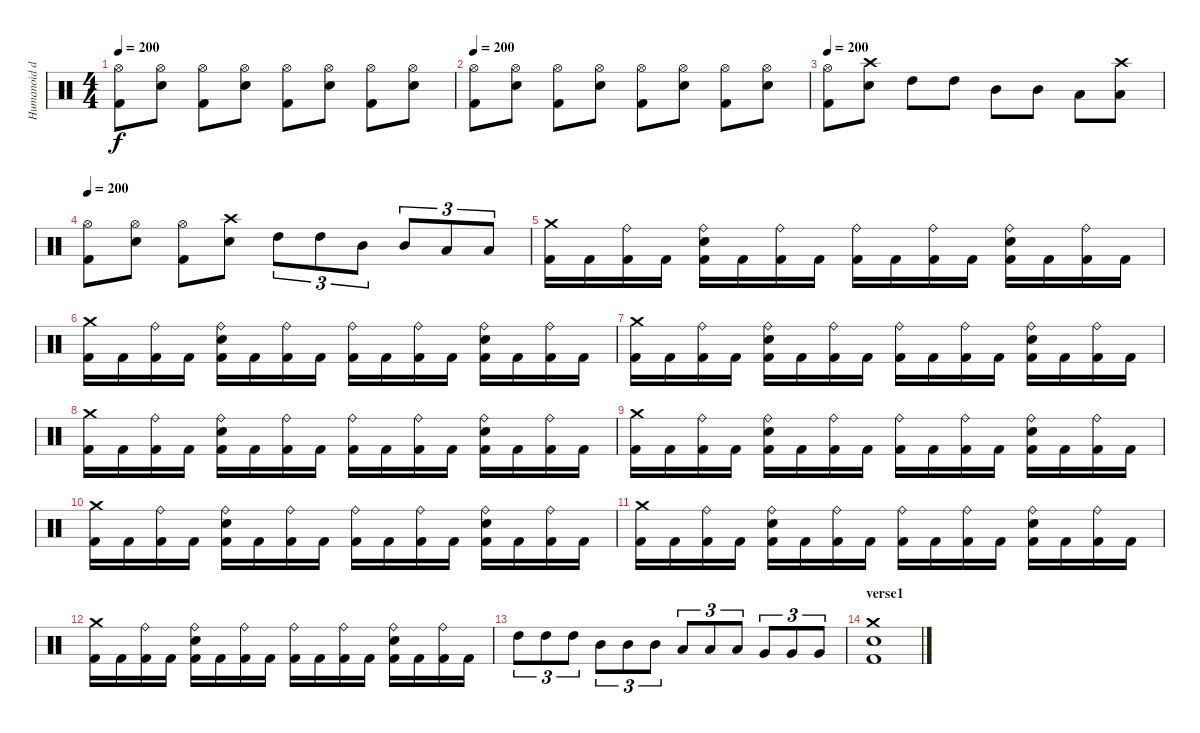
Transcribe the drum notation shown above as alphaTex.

\track ("Humanoid drum machine" "Humanoid d") {instrument percussion}
\staff {score}
\articulation defaults
\ts (4 4)
\tempo 200
\clef neutral
\ks c
("Hi-Hat (open)" "Kick (hit) 2").8{dy f} ("Hi-Hat (open)" "Electric Snare (hit)").8 ("Hi-Hat (open)" "Kick (hit) 2").8 ("Hi-Hat (open)" "Electric Snare (hit)").8 ("Hi-Hat (open)" "Kick (hit) 2").8 ("Hi-Hat (open)" "Electric Snare (hit)").8 ("Hi-Hat (open)" "Kick (hit) 2").8 ("Hi-Hat (open)" "Electric Snare (hit)").8 |
\tempo 200
("Hi-Hat (open)" "Kick (hit) 2").8 ("Hi-Hat (open)" "Electric Snare (hit)").8 ("Hi-Hat (open)" "Kick (hit) 2").8 ("Hi-Hat (open)" "Electric Snare (hit)").8 ("Hi-Hat (open)" "Kick (hit) 2").8 ("Hi-Hat (open)" "Electric Snare (hit)").8 ("Hi-Hat (open)" "Kick (hit) 2").8 ("Hi-Hat (open)" "Electric Snare (hit)").8 |
\tempo 200
("Hi-Hat (open)" "Kick (hit) 2").8 ("Crash high (hit)" "Electric Snare (hit)").8 "High Tom (hit)".8 "High Tom (hit)".8 "Mid Tom (hit)".8 "Mid Tom (hit)".8 "Low Tom (hit)".8 ("Crash high (hit)" "Low Tom (hit)").8 |
\tempo 200
("Hi-Hat (open)" "Kick (hit) 2").8 ("Hi-Hat (open)" "Electric Snare (hit)").8 ("Hi-Hat (open)" "Kick (hit) 2").8 ("Crash high (hit)" "Electric Snare (hit)").8 "High Tom (hit)".8{tu (3 2)} "High Tom (hit)".8{tu (3 2)} "Mid Tom (hit)".8{tu (3 2)} "Mid Tom (hit)".8{tu (3 2)} "Low Tom (hit)".8{tu (3 2)} "Low Tom (hit)".8{tu (3 2)} |
("Crash medium (hit)" "Kick (hit) 2").16 "Kick (hit) 2".16 ("Ride (bell)" "Kick (hit) 2").16 "Kick (hit) 2".16 ("Ride (bell)" "Electric Snare (hit)" "Kick (hit) 2").16 "Kick (hit) 2".16 ("Ride (bell)" "Kick (hit) 2").16 "Kick (hit) 2".16 ("Ride (bell)" "Kick (hit) 2").16 "Kick (hit) 2".16 ("Ride (bell)" "Kick (hit) 2").16 "Kick (hit) 2".16 ("Ride (bell)" "Electric Snare (hit)" "Kick (hit) 2").16 "Kick (hit) 2".16 ("Ride (bell)" "Kick (hit) 2").16 "Kick (hit) 2".16 |
("Crash medium (hit)" "Kick (hit) 2").16 "Kick (hit) 2".16 ("Ride (bell)" "Kick (hit) 2").16 "Kick (hit) 2".16 ("Ride (bell)" "Electric Snare (hit)" "Kick (hit) 2").16 "Kick (hit) 2".16 ("Ride (bell)" "Kick (hit) 2").16 "Kick (hit) 2".16 ("Ride (bell)" "Kick (hit) 2").16 "Kick (hit) 2".16 ("Ride (bell)" "Kick (hit) 2").16 "Kick (hit) 2".16 ("Ride (bell)" "Electric Snare (hit)" "Kick (hit) 2").16 "Kick (hit) 2".16 ("Ride (bell)" "Kick (hit) 2").16 "Kick (hit) 2".16 |
("Crash medium (hit)" "Kick (hit) 2").16 "Kick (hit) 2".16 ("Ride (bell)" "Kick (hit) 2").16 "Kick (hit) 2".16 ("Ride (bell)" "Electric Snare (hit)" "Kick (hit) 2").16 "Kick (hit) 2".16 ("Ride (bell)" "Kick (hit) 2").16 "Kick (hit) 2".16 ("Ride (bell)" "Kick (hit) 2").16 "Kick (hit) 2".16 ("Ride (bell)" "Kick (hit) 2").16 "Kick (hit) 2".16 ("Ride (bell)" "Electric Snare (hit)" "Kick (hit) 2").16 "Kick (hit) 2".16 ("Ride (bell)" "Kick (hit) 2").16 "Kick (hit) 2".16 |
("Crash medium (hit)" "Kick (hit) 2").16 "Kick (hit) 2".16 ("Ride (bell)" "Kick (hit) 2").16 "Kick (hit) 2".16 ("Ride (bell)" "Electric Snare (hit)" "Kick (hit) 2").16 "Kick (hit) 2".16 ("Ride (bell)" "Kick (hit) 2").16 "Kick (hit) 2".16 ("Ride (bell)" "Kick (hit) 2").16 "Kick (hit) 2".16 ("Ride (bell)" "Kick (hit) 2").16 "Kick (hit) 2".16 ("Ride (bell)" "Electric Snare (hit)" "Kick (hit) 2").16 "Kick (hit) 2".16 ("Ride (bell)" "Kick (hit) 2").16 "Kick (hit) 2".16 |
("Crash medium (hit)" "Kick (hit) 2").16 "Kick (hit) 2".16 ("Ride (bell)" "Kick (hit) 2").16 "Kick (hit) 2".16 ("Ride (bell)" "Electric Snare (hit)" "Kick (hit) 2").16 "Kick (hit) 2".16 ("Ride (bell)" "Kick (hit) 2").16 "Kick (hit) 2".16 ("Ride (bell)" "Kick (hit) 2").16 "Kick (hit) 2".16 ("Ride (bell)" "Kick (hit) 2").16 "Kick (hit) 2".16 ("Ride (bell)" "Electric Snare (hit)" "Kick (hit) 2").16 "Kick (hit) 2".16 ("Ride (bell)" "Kick (hit) 2").16 "Kick (hit) 2".16 |
("Crash medium (hit)" "Kick (hit) 2").16 "Kick (hit) 2".16 ("Ride (bell)" "Kick (hit) 2").16 "Kick (hit) 2".16 ("Ride (bell)" "Electric Snare (hit)" "Kick (hit) 2").16 "Kick (hit) 2".16 ("Ride (bell)" "Kick (hit) 2").16 "Kick (hit) 2".16 ("Ride (bell)" "Kick (hit) 2").16 "Kick (hit) 2".16 ("Ride (bell)" "Kick (hit) 2").16 "Kick (hit) 2".16 ("Ride (bell)" "Electric Snare (hit)" "Kick (hit) 2").16 "Kick (hit) 2".16 ("Ride (bell)" "Kick (hit) 2").16 "Kick (hit) 2".16 |
("Crash medium (hit)" "Kick (hit) 2").16 "Kick (hit) 2".16 ("Ride (bell)" "Kick (hit) 2").16 "Kick (hit) 2".16 ("Ride (bell)" "Electric Snare (hit)" "Kick (hit) 2").16 "Kick (hit) 2".16 ("Ride (bell)" "Kick (hit) 2").16 "Kick (hit) 2".16 ("Ride (bell)" "Kick (hit) 2").16 "Kick (hit) 2".16 ("Ride (bell)" "Kick (hit) 2").16 "Kick (hit) 2".16 ("Ride (bell)" "Electric Snare (hit)" "Kick (hit) 2").16 "Kick (hit) 2".16 ("Ride (bell)" "Kick (hit) 2").16 "Kick (hit) 2".16 |
("Crash medium (hit)" "Kick (hit) 2").16 "Kick (hit) 2".16 ("Ride (bell)" "Kick (hit) 2").16 "Kick (hit) 2".16 ("Ride (bell)" "Electric Snare (hit)" "Kick (hit) 2").16 "Kick (hit) 2".16 ("Ride (bell)" "Kick (hit) 2").16 "Kick (hit) 2".16 ("Ride (bell)" "Kick (hit) 2").16 "Kick (hit) 2".16 ("Ride (bell)" "Kick (hit) 2").16 "Kick (hit) 2".16 ("Ride (bell)" "Electric Snare (hit)" "Kick (hit) 2").16 "Kick (hit) 2".16 ("Ride (bell)" "Kick (hit) 2").16 "Kick (hit) 2".16 |
"High Tom (hit)".8{tu (3 2)} "High Tom (hit)".8{tu (3 2)} "High Tom (hit)".8{tu (3 2)} "Mid Tom (hit)".8{tu (3 2)} "Mid Tom (hit)".8{tu (3 2)} "Mid Tom (hit)".8{tu (3 2)} "Low Tom (hit)".8{tu (3 2)} "Low Tom (hit)".8{tu (3 2)} "Low Tom (hit)".8{tu (3 2)} "Very Low Tom (hit)".8{tu (3 2)} "Very Low Tom (hit)".8{tu (3 2)} "Very Low Tom (hit)".8{tu (3 2)} |
\section ("" "verse1")
("Crash medium (hit)" "Electric Snare (hit)" "Kick (hit) 2").1
